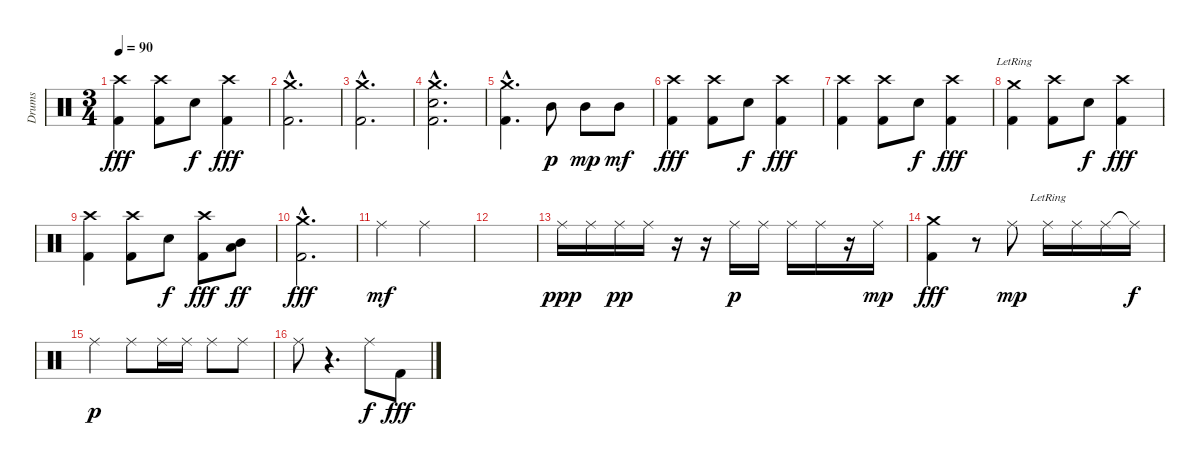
\track ("Drums" "Drums") {instrument percussion}
\staff {score}
\articulation defaults
\ts (3 4)
\tempo 90
\clef neutral
\ks c
("Crash high (hit)" "Kick (hit) 2").4{dy fff} ("Crash high (hit)" "Kick (hit) 2").8 "Snare (hit) 2".8{dy f} ("Crash high (hit)" "Kick (hit) 2").4{dy fff} |
("Crash medium (hit)"{hac} "Kick (hit) 2"{hac}).2{d} |
("Crash medium (hit)"{hac} "Kick (hit) 2"{hac}).2{d} |
("Crash medium (hit)"{hac} "Snare (hit) 2"{hac} "Kick (hit) 2"{hac}).2{d} |
("Crash medium (hit)"{hac} "Kick (hit) 2"{hac}).4{d} "Mid Tom (hit)".8{dy p} "Mid Tom (hit)".8{dy mp} "Mid Tom (hit)".8{dy mf} |
("Crash high (hit)" "Kick (hit) 2").4{dy fff} ("Crash high (hit)" "Kick (hit) 2").8 "Snare (hit) 2".8{dy f} ("Crash high (hit)" "Kick (hit) 2").4{dy fff} |
("Crash high (hit)" "Kick (hit) 2").4 ("Crash high (hit)" "Kick (hit) 2").8 "Snare (hit) 2".8{dy f} ("Crash high (hit)" "Kick (hit) 2").4{dy fff} |
("Crash medium (hit)"{lr} "Kick (hit) 2").4 ("Crash high (hit)" "Kick (hit) 2").8 "Snare (hit) 2".8{dy f} ("Crash high (hit)" "Kick (hit) 2").4{dy fff} |
("Crash high (hit)" "Kick (hit) 2").4 ("Crash high (hit)" "Kick (hit) 2").8 "Snare (hit) 2".8{dy f} ("Crash high (hit)" "Kick (hit) 2").8{dy fff} ("Mid Tom (hit)" "Low Tom (hit)").8{dy ff} |
("Crash medium (hit)"{hac} "Kick (hit) 2"{hac}).2{d dy fff} |
"Ride (middle)".4{dy mf} "Ride (middle)".2 |
|
"Ride (middle)".16{dy ppp} "Ride (middle)".16 "Ride (middle)".16{dy pp} "Ride (middle)".16 r.16 r.16 "Ride (middle)".16{dy p} "Ride (middle)".16 "Ride (middle)".16 "Ride (middle)".16 r.16 "Ride (middle)".16{dy mp} |
("Crash medium (hit)" "Kick (hit) 2").4{dy fff} r.8 "Ride (middle)".8{dy mp} "Ride (middle)"{lr}.16 "Ride (middle)".16 "Ride (middle)".16 "Ride (middle)"{t}.16{dy f} |
"Ride (middle)".4{dy p} "Ride (middle)".8 "Ride (middle)".16 "Ride (middle)".16 "Ride (middle)".8 "Ride (middle)".8 |
"Ride (middle)".8 r.4{d} "Ride (middle)".8{dy f} "Kick (hit) 2".8{dy fff}
